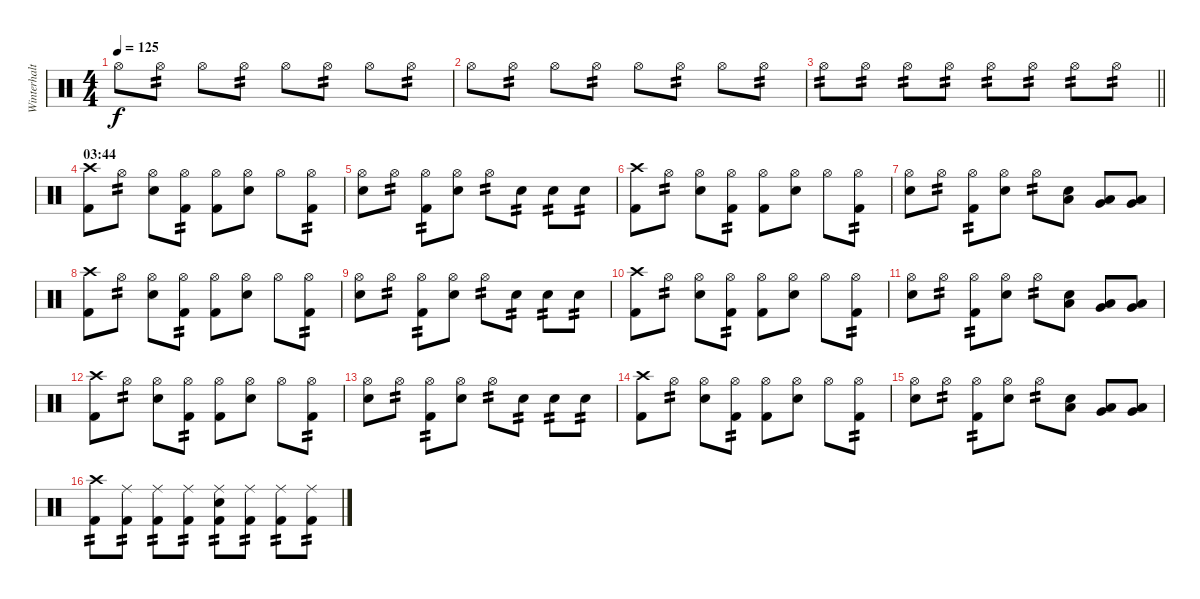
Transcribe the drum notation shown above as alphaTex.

\track ("Winterhalten" "Winterhalt") {instrument percussion}
\staff {score}
\articulation defaults
\ts (4 4)
\tempo 125
\clef neutral
\ks c "Hi-Hat (open)".8{dy f} "Hi-Hat (open)".8{tp 2} "Hi-Hat (open)".8 "Hi-Hat (open)".8{tp 2} "Hi-Hat (open)".8 "Hi-Hat (open)".8{tp 2} "Hi-Hat (open)".8 "Hi-Hat (open)".8{tp 2}
|
"Hi-Hat (open)".8 "Hi-Hat (open)".8{tp 2} "Hi-Hat (open)".8 "Hi-Hat (open)".8{tp 2} "Hi-Hat (open)".8 "Hi-Hat (open)".8{tp 2} "Hi-Hat (open)".8 "Hi-Hat (open)".8{tp 2} |
\barLineRight lightlight "Hi-Hat (open)".8{tp 2} "Hi-Hat (open)".8{tp 2} "Hi-Hat (open)".8{tp 2} "Hi-Hat (open)".8{tp 2} "Hi-Hat (open)".8{tp 2} "Hi-Hat (open)".8{tp 2} "Hi-Hat (open)".8{tp 2} "Hi-Hat (open)".8{tp 2}
|
\section ("" "03:44")
("Crash high (hit)" "Kick (hit) 2").8 "Hi-Hat (open)".8{tp 2} ("Hi-Hat (open)" "Snare (hit) 2").8 ("Hi-Hat (open)" "Kick (hit) 2").8{tp 2} ("Hi-Hat (open)" "Kick (hit) 2").8 ("Hi-Hat (open)" "Snare (hit) 2").8 "Hi-Hat (open)".8 ("Hi-Hat (open)" "Kick (hit) 2").8{tp 2} |
("Hi-Hat (open)" "Snare (hit) 2").8 "Hi-Hat (open)".8{tp 2} ("Hi-Hat (open)" "Kick (hit) 2").8{tp 2} ("Hi-Hat (open)" "Snare (hit) 2").8 "Hi-Hat (open)".8{tp 2} "Snare (hit) 2".8{tp 2} "Snare (hit) 2".8{tp 2} "Snare (hit) 2".8{tp 2} |
("Crash high (hit)" "Kick (hit) 2").8 "Hi-Hat (open)".8{tp 2} ("Hi-Hat (open)" "Snare (hit) 2").8 ("Hi-Hat (open)" "Kick (hit) 2").8{tp 2} ("Hi-Hat (open)" "Kick (hit) 2").8 ("Hi-Hat (open)" "Snare (hit) 2").8 "Hi-Hat (open)".8 ("Hi-Hat (open)" "Kick (hit) 2").8{tp 2} |
("Hi-Hat (open)" "Snare (hit) 2").8 "Hi-Hat (open)".8{tp 2} ("Hi-Hat (open)" "Kick (hit) 2").8{tp 2} ("Hi-Hat (open)" "Snare (hit) 2").8 "Hi-Hat (open)".8{tp 2} ("Snare (hit) 2" "Low Tom (hit)").8 ("Low Tom (hit)" "Very Low Tom (hit)").8 ("Very Low Tom (hit)" "Low Floor Tom (hit)").8 |
("Crash high (hit)" "Kick (hit) 2").8 "Hi-Hat (open)".8{tp 2} ("Hi-Hat (open)" "Snare (hit) 2").8 ("Hi-Hat (open)" "Kick (hit) 2").8{tp 2} ("Hi-Hat (open)" "Kick (hit) 2").8 ("Hi-Hat (open)" "Snare (hit) 2").8 "Hi-Hat (open)".8 ("Hi-Hat (open)" "Kick (hit) 2").8{tp 2} |
("Hi-Hat (open)" "Snare (hit) 2").8 "Hi-Hat (open)".8{tp 2} ("Hi-Hat (open)" "Kick (hit) 2").8{tp 2} ("Hi-Hat (open)" "Snare (hit) 2").8 "Hi-Hat (open)".8{tp 2} "Snare (hit) 2".8{tp 2} "Snare (hit) 2".8{tp 2} "Snare (hit) 2".8{tp 2} |
("Crash high (hit)" "Kick (hit) 2").8 "Hi-Hat (open)".8{tp 2} ("Hi-Hat (open)" "Snare (hit) 2").8 ("Hi-Hat (open)" "Kick (hit) 2").8{tp 2} ("Hi-Hat (open)" "Kick (hit) 2").8 ("Hi-Hat (open)" "Snare (hit) 2").8 "Hi-Hat (open)".8 ("Hi-Hat (open)" "Kick (hit) 2").8{tp 2} |
("Hi-Hat (open)" "Snare (hit) 2").8 "Hi-Hat (open)".8{tp 2} ("Hi-Hat (open)" "Kick (hit) 2").8{tp 2} ("Hi-Hat (open)" "Snare (hit) 2").8 "Hi-Hat (open)".8{tp 2} ("Snare (hit) 2" "Low Tom (hit)").8 ("Low Tom (hit)" "Very Low Tom (hit)").8 ("Very Low Tom (hit)" "Low Floor Tom (hit)").8 |
("Crash high (hit)" "Kick (hit) 2").8 "Hi-Hat (open)".8{tp 2} ("Hi-Hat (open)" "Snare (hit) 2").8 ("Hi-Hat (open)" "Kick (hit) 2").8{tp 2} ("Hi-Hat (open)" "Kick (hit) 2").8 ("Hi-Hat (open)" "Snare (hit) 2").8 "Hi-Hat (open)".8 ("Hi-Hat (open)" "Kick (hit) 2").8{tp 2} |
("Hi-Hat (open)" "Snare (hit) 2").8 "Hi-Hat (open)".8{tp 2} ("Hi-Hat (open)" "Kick (hit) 2").8{tp 2} ("Hi-Hat (open)" "Snare (hit) 2").8 "Hi-Hat (open)".8{tp 2} "Snare (hit) 2".8{tp 2} "Snare (hit) 2".8{tp 2} "Snare (hit) 2".8{tp 2} |
("Crash high (hit)" "Kick (hit) 2").8 "Hi-Hat (open)".8{tp 2} ("Hi-Hat (open)" "Snare (hit) 2").8 ("Hi-Hat (open)" "Kick (hit) 2").8{tp 2} ("Hi-Hat (open)" "Kick (hit) 2").8 ("Hi-Hat (open)" "Snare (hit) 2").8 "Hi-Hat (open)".8 ("Hi-Hat (open)" "Kick (hit) 2").8{tp 2} |
("Hi-Hat (open)" "Snare (hit) 2").8 "Hi-Hat (open)".8{tp 2} ("Hi-Hat (open)" "Kick (hit) 2").8{tp 2} ("Hi-Hat (open)" "Snare (hit) 2").8 "Hi-Hat (open)".8{tp 2} ("Snare (hit) 2" "Low Tom (hit)").8 ("Low Tom (hit)" "Very Low Tom (hit)").8 ("Very Low Tom (hit)" "Low Floor Tom (hit)").8 |
("Crash high (hit)" "Kick (hit) 2").8{tp 2} ("Ride (middle)" "Kick (hit) 2").8{tp 2} ("Ride (middle)" "Kick (hit) 2").8{tp 2} ("Ride (middle)" "Kick (hit) 2").8{tp 2} ("Ride (middle)" "Snare (hit) 2" "Kick (hit) 2").8{tp 2} ("Ride (middle)" "Kick (hit) 2").8{tp 2} ("Ride (middle)" "Kick (hit) 2").8{tp 2} ("Ride (middle)" "Kick (hit) 2").8{tp 2}
